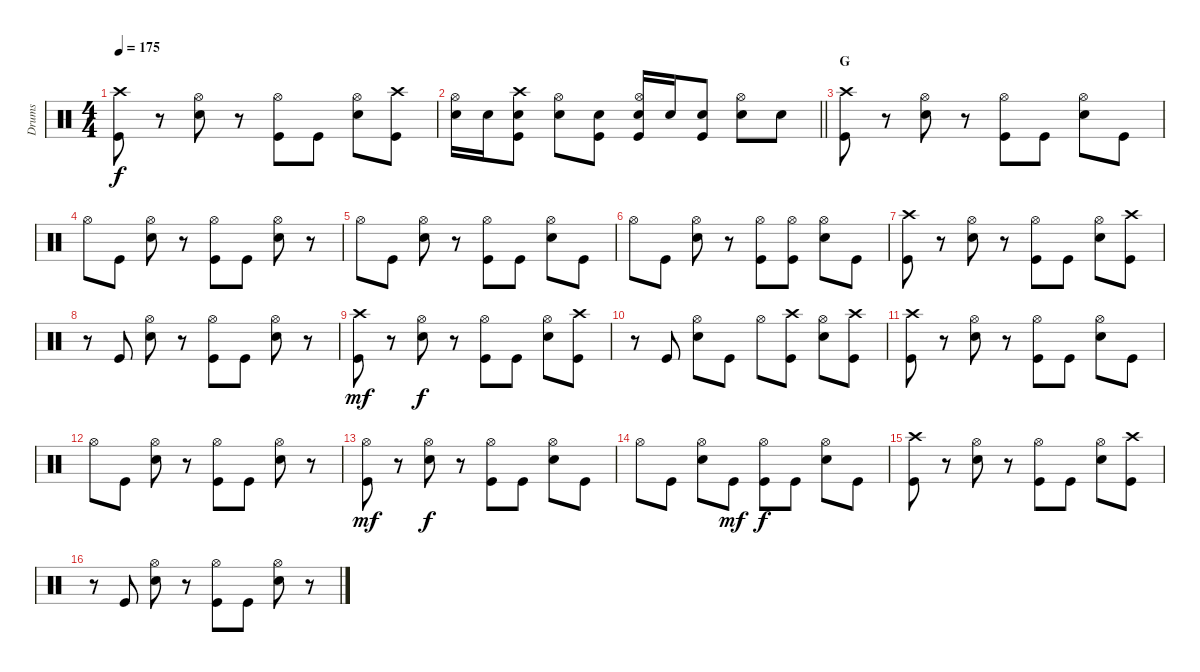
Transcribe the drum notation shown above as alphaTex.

\track ("Drums" "Drums") {instrument percussion}
\staff {score}
\articulation defaults
\ts (4 4)
\tempo 175
\clef neutral
\ks c
("Crash high (hit)" "Kick (hit)").8{dy f} r.8 ("Hi-Hat (open)" "Snare (hit) 2").8 r.8 ("Hi-Hat (open)" "Kick (hit)").8 "Kick (hit)".8 ("Hi-Hat (open)" "Snare (hit) 2").8 ("Crash high (hit)" "Kick (hit)").8 |
\barLineRight lightlight
("Hi-Hat (open)" "Snare (hit) 2").16 "Snare (hit) 2".16 ("Crash high (hit)" "Snare (hit) 2" "Kick (hit)").8 ("Hi-Hat (open)" "Snare (hit) 2").8 ("Snare (hit) 2" "Kick (hit)").8 ("Hi-Hat (open)" "Snare (hit) 2" "Kick (hit)").16 "Snare (hit) 2".16 ("Snare (hit) 2" "Kick (hit)").8 ("Hi-Hat (open)" "Snare (hit) 2").8 "Snare (hit) 2".8 |
\section ("" "G")
("Crash high (hit)" "Kick (hit)").8 r.8 ("Hi-Hat (open)" "Snare (hit) 2").8 r.8 ("Hi-Hat (open)" "Kick (hit)").8 "Kick (hit)".8 ("Hi-Hat (open)" "Snare (hit) 2").8 "Kick (hit)".8 |
"Hi-Hat (open)".8 "Kick (hit)".8 ("Hi-Hat (open)" "Snare (hit) 2").8 r.8 ("Hi-Hat (open)" "Kick (hit)").8 "Kick (hit)".8 ("Hi-Hat (open)" "Snare (hit) 2").8 r.8 |
"Hi-Hat (open)".8 "Kick (hit)".8 ("Hi-Hat (open)" "Snare (hit) 2").8 r.8 ("Hi-Hat (open)" "Kick (hit)").8 "Kick (hit)".8 ("Hi-Hat (open)" "Snare (hit) 2").8 "Kick (hit)".8 |
"Hi-Hat (open)".8 "Kick (hit)".8 ("Hi-Hat (open)" "Snare (hit) 2").8 r.8 ("Hi-Hat (open)" "Kick (hit)").8 ("Hi-Hat (open)" "Kick (hit)").8 ("Hi-Hat (open)" "Snare (hit) 2").8 "Kick (hit)".8 |
("Crash high (hit)" "Kick (hit)").8 r.8 ("Hi-Hat (open)" "Snare (hit) 2").8 r.8 ("Hi-Hat (open)" "Kick (hit)").8 "Kick (hit)".8 ("Hi-Hat (open)" "Snare (hit) 2").8 ("Crash high (hit)" "Kick (hit)").8 |
r.8 "Kick (hit)".8 ("Hi-Hat (open)" "Snare (hit) 2").8 r.8 ("Hi-Hat (open)" "Kick (hit)").8 "Kick (hit)".8 ("Hi-Hat (open)" "Snare (hit) 2").8 r.8 |
("Crash high (hit)" "Kick (hit)").8{dy mf} r.8 ("Hi-Hat (open)" "Snare (hit) 2").8{dy f} r.8 ("Hi-Hat (open)" "Kick (hit)").8 "Kick (hit)".8 ("Hi-Hat (open)" "Snare (hit) 2").8 ("Crash high (hit)" "Kick (hit)").8 |
r.8 "Kick (hit)".8 ("Hi-Hat (open)" "Snare (hit) 2").8 "Kick (hit)".8 "Hi-Hat (open)".8 ("Crash high (hit)" "Kick (hit)").8 ("Hi-Hat (open)" "Snare (hit) 2").8 ("Crash high (hit)" "Kick (hit)").8 |
("Crash high (hit)" "Kick (hit)").8 r.8 ("Hi-Hat (open)" "Snare (hit) 2").8 r.8 ("Hi-Hat (open)" "Kick (hit)").8 "Kick (hit)".8 ("Hi-Hat (open)" "Snare (hit) 2").8 "Kick (hit)".8 |
"Hi-Hat (open)".8 "Kick (hit)".8 ("Hi-Hat (open)" "Snare (hit) 2").8 r.8 ("Hi-Hat (open)" "Kick (hit)").8 "Kick (hit)".8 ("Hi-Hat (open)" "Snare (hit) 2").8 r.8 |
("Hi-Hat (open)" "Kick (hit)").8{dy mf} r.8 ("Hi-Hat (open)" "Snare (hit) 2").8{dy f} r.8 ("Hi-Hat (open)" "Kick (hit)").8 "Kick (hit)".8 ("Hi-Hat (open)" "Snare (hit) 2").8 "Kick (hit)".8 |
"Hi-Hat (open)".8 "Kick (hit)".8 ("Hi-Hat (open)" "Snare (hit) 2").8 "Kick (hit)".8{dy mf} ("Hi-Hat (open)" "Kick (hit)").8{dy f} "Kick (hit)".8 ("Hi-Hat (open)" "Snare (hit) 2").8 "Kick (hit)".8 |
("Crash high (hit)" "Kick (hit)").8 r.8 ("Hi-Hat (open)" "Snare (hit) 2").8 r.8 ("Hi-Hat (open)" "Kick (hit)").8 "Kick (hit)".8 ("Hi-Hat (open)" "Snare (hit) 2").8 ("Crash high (hit)" "Kick (hit)").8 |
r.8 "Kick (hit)".8 ("Hi-Hat (open)" "Snare (hit) 2").8 r.8 ("Hi-Hat (open)" "Kick (hit)").8 "Kick (hit)".8 ("Hi-Hat (open)" "Snare (hit) 2").8 r.8
